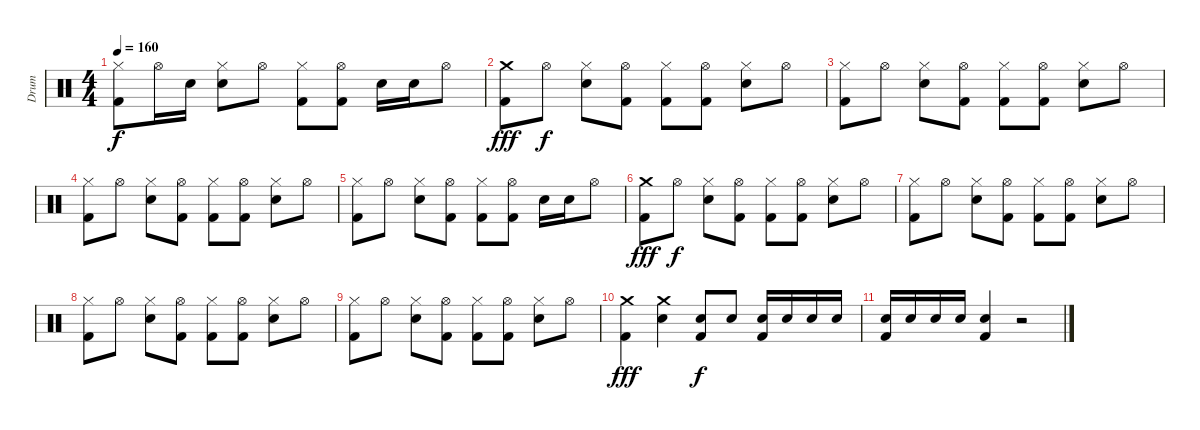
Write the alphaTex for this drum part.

\track ("Drum" "Drum") {instrument percussion}
\staff {score}
\articulation defaults
\ts (4 4)
\tempo 160
\clef neutral
\ks c
("Hi-Hat (closed)" "Kick (hit) 2").8{dy f} "Hi-Hat (open)".16 "Snare (hit) 2".16 ("Hi-Hat (closed)" "Snare (hit) 2").8 "Hi-Hat (open)".8 ("Hi-Hat (closed)" "Kick (hit) 2").8 ("Hi-Hat (open)" "Kick (hit) 2").8 "Snare (hit) 2".16 "Snare (hit) 2".16 "Hi-Hat (open)".8 |
("Crash medium (hit)" "Kick (hit) 2").8{dy fff} "Hi-Hat (open)".8{dy f} ("Hi-Hat (closed)" "Snare (hit) 2").8 ("Hi-Hat (open)" "Kick (hit) 2").8 ("Hi-Hat (closed)" "Kick (hit) 2").8 ("Hi-Hat (open)" "Kick (hit) 2").8 ("Hi-Hat (closed)" "Snare (hit) 2").8 "Hi-Hat (open)".8 |
("Hi-Hat (closed)" "Kick (hit) 2").8 "Hi-Hat (open)".8 ("Hi-Hat (closed)" "Snare (hit) 2").8 ("Hi-Hat (open)" "Kick (hit) 2").8 ("Hi-Hat (closed)" "Kick (hit) 2").8 ("Hi-Hat (open)" "Kick (hit) 2").8 ("Hi-Hat (closed)" "Snare (hit) 2").8 "Hi-Hat (open)".8 |
("Hi-Hat (closed)" "Kick (hit) 2").8 "Hi-Hat (open)".8 ("Hi-Hat (closed)" "Snare (hit) 2").8 ("Hi-Hat (open)" "Kick (hit) 2").8 ("Hi-Hat (closed)" "Kick (hit) 2").8 ("Hi-Hat (open)" "Kick (hit) 2").8 ("Hi-Hat (closed)" "Snare (hit) 2").8 "Hi-Hat (open)".8 |
("Hi-Hat (closed)" "Kick (hit) 2").8 "Hi-Hat (open)".8 ("Hi-Hat (closed)" "Snare (hit) 2").8 ("Hi-Hat (open)" "Kick (hit) 2").8 ("Hi-Hat (closed)" "Kick (hit) 2").8 ("Hi-Hat (open)" "Kick (hit) 2").8 "Snare (hit) 2".16 "Snare (hit) 2".16 "Hi-Hat (open)".8 |
("Crash medium (hit)" "Kick (hit) 2").8{dy fff} "Hi-Hat (open)".8{dy f} ("Hi-Hat (closed)" "Snare (hit) 2").8 ("Hi-Hat (open)" "Kick (hit) 2").8 ("Hi-Hat (closed)" "Kick (hit) 2").8 ("Hi-Hat (open)" "Kick (hit) 2").8 ("Hi-Hat (closed)" "Snare (hit) 2").8 "Hi-Hat (open)".8 |
("Hi-Hat (closed)" "Kick (hit) 2").8 "Hi-Hat (open)".8 ("Hi-Hat (closed)" "Snare (hit) 2").8 ("Hi-Hat (open)" "Kick (hit) 2").8 ("Hi-Hat (closed)" "Kick (hit) 2").8 ("Hi-Hat (open)" "Kick (hit) 2").8 ("Hi-Hat (closed)" "Snare (hit) 2").8 "Hi-Hat (open)".8 |
("Hi-Hat (closed)" "Kick (hit) 2").8 "Hi-Hat (open)".8 ("Hi-Hat (closed)" "Snare (hit) 2").8 ("Hi-Hat (open)" "Kick (hit) 2").8 ("Hi-Hat (closed)" "Kick (hit) 2").8 ("Hi-Hat (open)" "Kick (hit) 2").8 ("Hi-Hat (closed)" "Snare (hit) 2").8 "Hi-Hat (open)".8 |
("Hi-Hat (closed)" "Kick (hit) 2").8 "Hi-Hat (open)".8 ("Hi-Hat (closed)" "Snare (hit) 2").8 ("Hi-Hat (open)" "Kick (hit) 2").8 ("Hi-Hat (closed)" "Kick (hit) 2").8 ("Hi-Hat (open)" "Kick (hit) 2").8 ("Hi-Hat (closed)" "Snare (hit) 2").8 "Hi-Hat (open)".8 |
("Crash medium (hit)" "Kick (hit) 2").4{dy fff} ("Crash medium (hit)" "Snare (hit) 2").4 ("Snare (hit) 2" "Kick (hit) 2").8{dy f} "Snare (hit) 2".8 ("Snare (hit) 2" "Kick (hit) 2").16 "Snare (hit) 2".16 "Snare (hit) 2".16 "Snare (hit) 2".16 |
("Snare (hit) 2" "Kick (hit) 2").16 "Snare (hit) 2".16 "Snare (hit) 2".16 "Snare (hit) 2".16 ("Snare (hit) 2" "Kick (hit) 2").4 r.2
